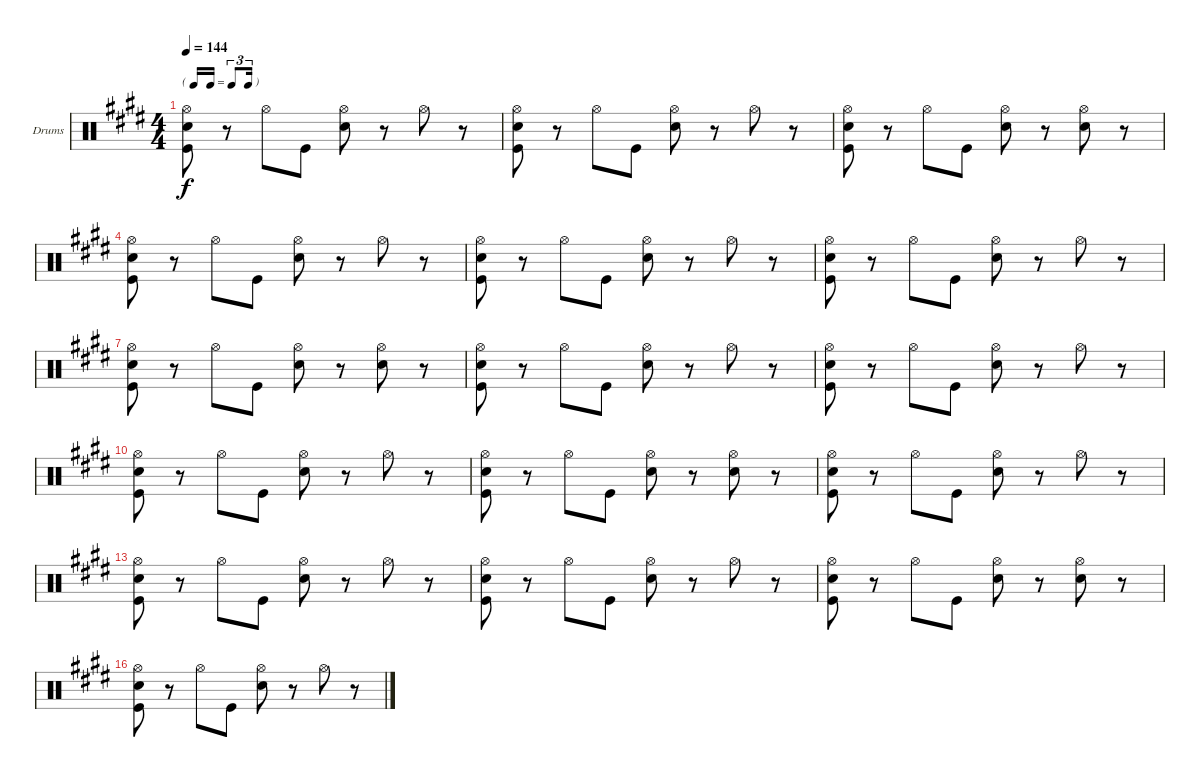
\bracketExtendMode nobrackets
\firstSystemTrackNameOrientation horizontal
\otherSystemsTrackNameOrientation horizontal
\defaultBarNumberDisplay FirstOfSystem
\track ("Drumkit" "Drums") {instrument percussion}
\staff {score}
\articulation defaults
\ts (4 4)
\tf triplet16th
\tempo 144
\clef neutral
\ks c#minor
("Hi-Hat (open)" "Snare (hit) 2" "Kick (hit)").8{dy f} r.8 "Hi-Hat (open)".8 "Kick (hit)".8 ("Snare (hit) 2" "Hi-Hat (open)").8 r.8 "Hi-Hat (open)".8 r.8 |
("Hi-Hat (open)" "Snare (hit) 2" "Kick (hit)").8 r.8 "Hi-Hat (open)".8 "Kick (hit)".8 ("Snare (hit) 2" "Hi-Hat (open)").8 r.8 "Hi-Hat (open)".8 r.8 |
("Hi-Hat (open)" "Snare (hit) 2" "Kick (hit)").8 r.8 "Hi-Hat (open)".8 "Kick (hit)".8 ("Snare (hit) 2" "Hi-Hat (open)").8 r.8 ("Hi-Hat (open)" "Snare (hit) 2").8 r.8 |
\ks e
("Hi-Hat (open)" "Snare (hit) 2" "Kick (hit)").8 r.8 "Hi-Hat (open)".8 "Kick (hit)".8 ("Snare (hit) 2" "Hi-Hat (open)").8 r.8 "Hi-Hat (open)".8 r.8 |
\ks c#minor
("Hi-Hat (open)" "Snare (hit) 2" "Kick (hit)").8 r.8 "Hi-Hat (open)".8 "Kick (hit)".8 ("Snare (hit) 2" "Hi-Hat (open)").8 r.8 "Hi-Hat (open)".8 r.8 |
("Hi-Hat (open)" "Snare (hit) 2" "Kick (hit)").8 r.8 "Hi-Hat (open)".8 "Kick (hit)".8 ("Snare (hit) 2" "Hi-Hat (open)").8 r.8 "Hi-Hat (open)".8 r.8 |
("Hi-Hat (open)" "Snare (hit) 2" "Kick (hit)").8 r.8 "Hi-Hat (open)".8 "Kick (hit)".8 ("Snare (hit) 2" "Hi-Hat (open)").8 r.8 ("Hi-Hat (open)" "Snare (hit) 2").8 r.8 |
\ks e
("Hi-Hat (open)" "Snare (hit) 2" "Kick (hit)").8 r.8 "Hi-Hat (open)".8 "Kick (hit)".8 ("Snare (hit) 2" "Hi-Hat (open)").8 r.8 "Hi-Hat (open)".8 r.8 |
\ks c#minor
("Hi-Hat (open)" "Snare (hit) 2" "Kick (hit)").8 r.8 "Hi-Hat (open)".8 "Kick (hit)".8 ("Snare (hit) 2" "Hi-Hat (open)").8 r.8 "Hi-Hat (open)".8 r.8 |
("Hi-Hat (open)" "Snare (hit) 2" "Kick (hit)").8 r.8 "Hi-Hat (open)".8 "Kick (hit)".8 ("Snare (hit) 2" "Hi-Hat (open)").8 r.8 "Hi-Hat (open)".8 r.8 |
("Hi-Hat (open)" "Snare (hit) 2" "Kick (hit)").8 r.8 "Hi-Hat (open)".8 "Kick (hit)".8 ("Snare (hit) 2" "Hi-Hat (open)").8 r.8 ("Hi-Hat (open)" "Snare (hit) 2").8 r.8 |
\ks e
("Hi-Hat (open)" "Snare (hit) 2" "Kick (hit)").8 r.8 "Hi-Hat (open)".8 "Kick (hit)".8 ("Snare (hit) 2" "Hi-Hat (open)").8 r.8 "Hi-Hat (open)".8 r.8 |
\ks c#minor
("Hi-Hat (open)" "Snare (hit) 2" "Kick (hit)").8 r.8 "Hi-Hat (open)".8 "Kick (hit)".8 ("Snare (hit) 2" "Hi-Hat (open)").8 r.8 "Hi-Hat (open)".8 r.8 |
("Hi-Hat (open)" "Snare (hit) 2" "Kick (hit)").8 r.8 "Hi-Hat (open)".8 "Kick (hit)".8 ("Snare (hit) 2" "Hi-Hat (open)").8 r.8 "Hi-Hat (open)".8 r.8 |
("Hi-Hat (open)" "Snare (hit) 2" "Kick (hit)").8 r.8 "Hi-Hat (open)".8 "Kick (hit)".8 ("Snare (hit) 2" "Hi-Hat (open)").8 r.8 ("Hi-Hat (open)" "Snare (hit) 2").8 r.8 |
\ks e
("Hi-Hat (open)" "Snare (hit) 2" "Kick (hit)").8 r.8 "Hi-Hat (open)".8 "Kick (hit)".8 ("Snare (hit) 2" "Hi-Hat (open)").8 r.8 "Hi-Hat (open)".8 r.8
